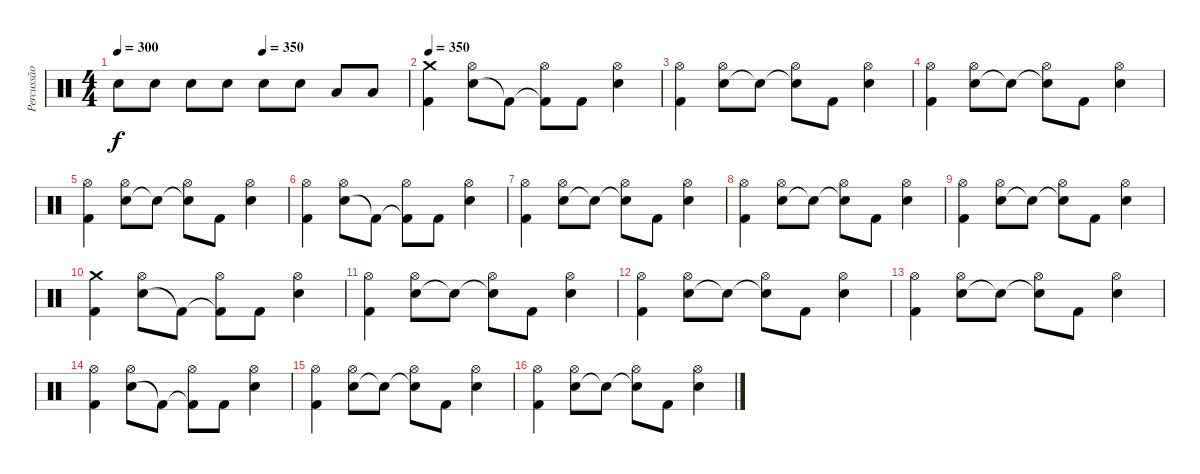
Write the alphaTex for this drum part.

\track ("Percussão" "Percussão") {instrument percussion}
\staff {score}
\articulation defaults
\ts (4 4)
\tempo 300
\tempo (350 0.5)
\clef neutral
\ks c "Electric Snare (hit)".8{dy f} "Electric Snare (hit)".8 "Electric Snare (hit)".8 "Electric Snare (hit)".8 "Electric Snare (hit)".8 "Electric Snare (hit)".8 "Low Tom (hit)".8 "Low Tom (hit)".8
|
\tempo 350
("Kick (hit) 2" "Crash medium (hit)").4{volume 13} ("Electric Snare (hit)" "Hi-Hat (open)").8 "Kick (hit) 2"{t}.8 ("Kick (hit) 2"{t} "Hi-Hat (open)").8 "Kick (hit) 2".8 ("Electric Snare (hit)" "Hi-Hat (open)").4 |
("Kick (hit) 2" "Hi-Hat (open)").4 ("Electric Snare (hit)" "Hi-Hat (open)").8 "Snare (hit)"{t}.8 ("Snare (hit)"{t} "Hi-Hat (open)").8 "Kick (hit) 2".8 ("Electric Snare (hit)" "Hi-Hat (open)").4 |
("Kick (hit) 2" "Hi-Hat (open)").4 ("Electric Snare (hit)" "Hi-Hat (open)").8 "Snare (hit)"{t}.8 ("Snare (hit)"{t} "Hi-Hat (open)").8 "Kick (hit) 2".8 ("Electric Snare (hit)" "Hi-Hat (open)").4 |
("Kick (hit) 2" "Hi-Hat (open)").4 ("Electric Snare (hit)" "Hi-Hat (open)").8 "Snare (hit)"{t}.8 ("Snare (hit)"{t} "Hi-Hat (open)").8 "Kick (hit) 2".8 ("Electric Snare (hit)" "Hi-Hat (open)").4 |
("Kick (hit) 2" "Hi-Hat (open)").4 ("Electric Snare (hit)" "Hi-Hat (open)").8 "Kick (hit) 2"{t}.8 ("Kick (hit) 2"{t} "Hi-Hat (open)").8 "Kick (hit) 2".8 ("Electric Snare (hit)" "Hi-Hat (open)").4 |
("Kick (hit) 2" "Hi-Hat (open)").4 ("Electric Snare (hit)" "Hi-Hat (open)").8 "Snare (hit)"{t}.8 ("Snare (hit)"{t} "Hi-Hat (open)").8 "Kick (hit) 2".8 ("Electric Snare (hit)" "Hi-Hat (open)").4 |
("Kick (hit) 2" "Hi-Hat (open)").4 ("Electric Snare (hit)" "Hi-Hat (open)").8 "Snare (hit)"{t}.8 ("Snare (hit)"{t} "Hi-Hat (open)").8 "Kick (hit) 2".8 ("Electric Snare (hit)" "Hi-Hat (open)").4 |
("Kick (hit) 2" "Hi-Hat (open)").4 ("Electric Snare (hit)" "Hi-Hat (open)").8 "Snare (hit)"{t}.8 ("Snare (hit)"{t} "Hi-Hat (open)").8 "Kick (hit) 2".8 ("Electric Snare (hit)" "Hi-Hat (open)").4 |
("Kick (hit) 2" "Crash medium (hit)").4 ("Electric Snare (hit)" "Hi-Hat (open)").8 "Kick (hit) 2"{t}.8 ("Kick (hit) 2"{t} "Hi-Hat (open)").8 "Kick (hit) 2".8 ("Electric Snare (hit)" "Hi-Hat (open)").4 |
("Kick (hit) 2" "Hi-Hat (open)").4 ("Electric Snare (hit)" "Hi-Hat (open)").8 "Snare (hit)"{t}.8 ("Snare (hit)"{t} "Hi-Hat (open)").8 "Kick (hit) 2".8 ("Electric Snare (hit)" "Hi-Hat (open)").4 |
("Kick (hit) 2" "Hi-Hat (open)").4 ("Electric Snare (hit)" "Hi-Hat (open)").8 "Snare (hit)"{t}.8 ("Snare (hit)"{t} "Hi-Hat (open)").8 "Kick (hit) 2".8 ("Electric Snare (hit)" "Hi-Hat (open)").4 |
("Kick (hit) 2" "Hi-Hat (open)").4 ("Electric Snare (hit)" "Hi-Hat (open)").8 "Snare (hit)"{t}.8 ("Snare (hit)"{t} "Hi-Hat (open)").8 "Kick (hit) 2".8 ("Electric Snare (hit)" "Hi-Hat (open)").4 |
("Kick (hit) 2" "Hi-Hat (open)").4 ("Electric Snare (hit)" "Hi-Hat (open)").8 "Kick (hit) 2"{t}.8 ("Kick (hit) 2"{t} "Hi-Hat (open)").8 "Kick (hit) 2".8 ("Electric Snare (hit)" "Hi-Hat (open)").4 |
("Kick (hit) 2" "Hi-Hat (open)").4 ("Electric Snare (hit)" "Hi-Hat (open)").8 "Snare (hit)"{t}.8 ("Snare (hit)"{t} "Hi-Hat (open)").8 "Kick (hit) 2".8 ("Electric Snare (hit)" "Hi-Hat (open)").4 |
("Kick (hit) 2" "Hi-Hat (open)").4 ("Electric Snare (hit)" "Hi-Hat (open)").8 "Snare (hit)"{t}.8 ("Snare (hit)"{t} "Hi-Hat (open)").8 "Kick (hit) 2".8 ("Electric Snare (hit)" "Hi-Hat (open)").4
